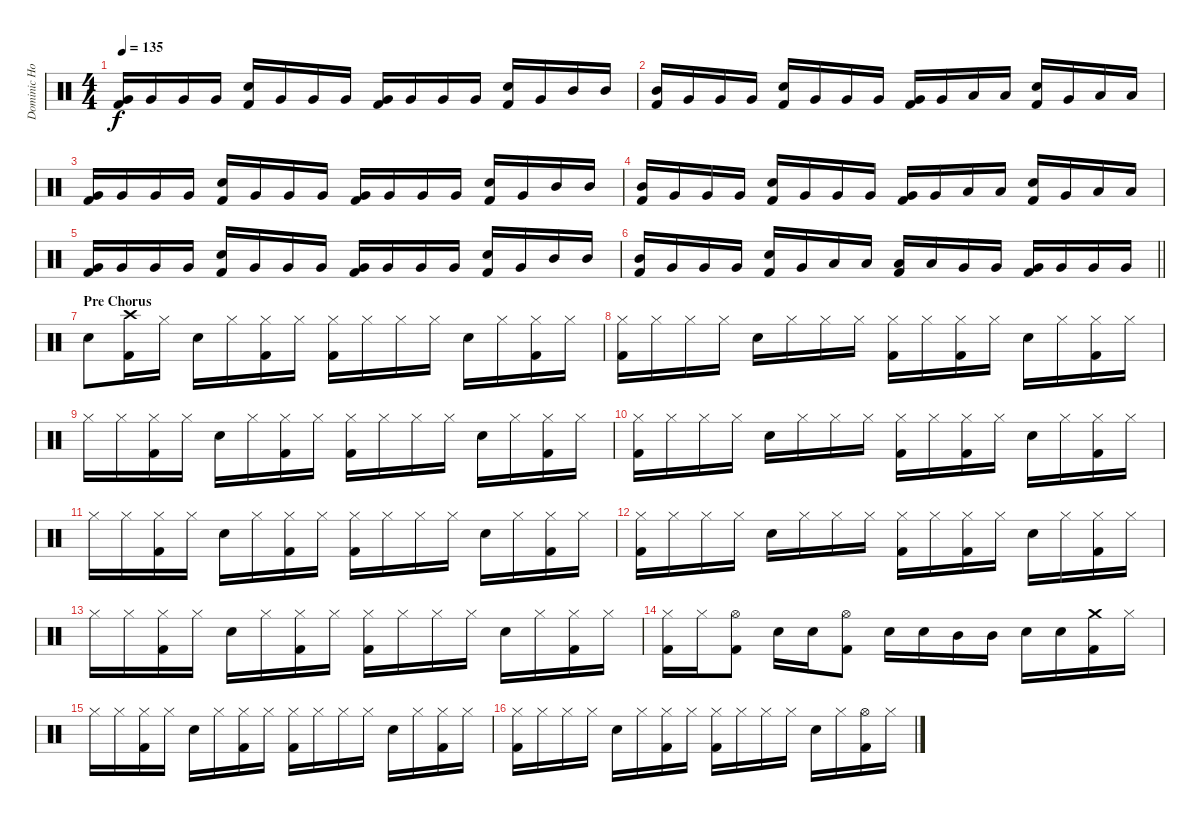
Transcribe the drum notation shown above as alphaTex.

\track ("Dominic Howard (Drums)" "Dominic Ho") {instrument percussion}
\staff {score}
\articulation defaults
\ts (4 4)
\tempo 135
\clef neutral
\ks c
("Kick (hit) 2" "Very Low Tom (hit)").16{dy f} "Very Low Tom (hit)".16 "Very Low Tom (hit)".16 "Very Low Tom (hit)".16 ("Electric Snare (hit)" "Kick (hit) 2").16 "Very Low Tom (hit)".16 "Very Low Tom (hit)".16 "Very Low Tom (hit)".16 ("Kick (hit) 2" "Very Low Tom (hit)").16 "Very Low Tom (hit)".16 "Very Low Tom (hit)".16 "Very Low Tom (hit)".16 ("Electric Snare (hit)" "Kick (hit) 2").16 "Very Low Tom (hit)".16 "Mid Tom (hit)".16 "Mid Tom (hit)".16 |
("Kick (hit) 2" "Mid Tom (hit)").16 "Very Low Tom (hit)".16 "Very Low Tom (hit)".16 "Very Low Tom (hit)".16 ("Electric Snare (hit)" "Kick (hit) 2").16 "Very Low Tom (hit)".16 "Very Low Tom (hit)".16 "Very Low Tom (hit)".16 ("Kick (hit) 2" "Very Low Tom (hit)").16 "Very Low Tom (hit)".16 "Low Tom (hit)".16 "Low Tom (hit)".16 ("Electric Snare (hit)" "Kick (hit) 2").16 "Very Low Tom (hit)".16 "Low Tom (hit)".16 "Low Tom (hit)".16 |
("Kick (hit) 2" "Very Low Tom (hit)").16 "Very Low Tom (hit)".16 "Very Low Tom (hit)".16 "Very Low Tom (hit)".16 ("Electric Snare (hit)" "Kick (hit) 2").16 "Very Low Tom (hit)".16 "Very Low Tom (hit)".16 "Very Low Tom (hit)".16 ("Kick (hit) 2" "Very Low Tom (hit)").16 "Very Low Tom (hit)".16 "Very Low Tom (hit)".16 "Very Low Tom (hit)".16 ("Electric Snare (hit)" "Kick (hit) 2").16 "Very Low Tom (hit)".16 "Mid Tom (hit)".16 "Mid Tom (hit)".16 |
("Kick (hit) 2" "Mid Tom (hit)").16 "Very Low Tom (hit)".16 "Very Low Tom (hit)".16 "Very Low Tom (hit)".16 ("Electric Snare (hit)" "Kick (hit) 2").16 "Very Low Tom (hit)".16 "Very Low Tom (hit)".16 "Very Low Tom (hit)".16 ("Kick (hit) 2" "Very Low Tom (hit)").16 "Very Low Tom (hit)".16 "Low Tom (hit)".16 "Low Tom (hit)".16 ("Electric Snare (hit)" "Kick (hit) 2").16 "Very Low Tom (hit)".16 "Low Tom (hit)".16 "Low Tom (hit)".16 |
("Kick (hit) 2" "Very Low Tom (hit)").16 "Very Low Tom (hit)".16 "Very Low Tom (hit)".16 "Very Low Tom (hit)".16 ("Electric Snare (hit)" "Kick (hit) 2").16 "Very Low Tom (hit)".16 "Very Low Tom (hit)".16 "Very Low Tom (hit)".16 ("Kick (hit) 2" "Very Low Tom (hit)").16 "Very Low Tom (hit)".16 "Very Low Tom (hit)".16 "Very Low Tom (hit)".16 ("Electric Snare (hit)" "Kick (hit) 2").16 "Very Low Tom (hit)".16 "Mid Tom (hit)".16 "Mid Tom (hit)".16 |
\barLineRight lightlight
("Kick (hit) 2" "Mid Tom (hit)").16 "Very Low Tom (hit)".16 "Very Low Tom (hit)".16 "Very Low Tom (hit)".16 ("Electric Snare (hit)" "Kick (hit) 2").16 "Very Low Tom (hit)".16 "Low Tom (hit)".16 "Low Tom (hit)".16 ("Kick (hit) 2" "Low Tom (hit)").16 "Low Tom (hit)".16 "Very Low Tom (hit)".16 "Very Low Tom (hit)".16 ("Kick (hit) 2" "Very Low Tom (hit)").16 "Very Low Tom (hit)".16 "Very Low Tom (hit)".16 "Very Low Tom (hit)".16 |
\section ("" "Pre Chorus")
"Electric Snare (hit)".8 ("Crash high (hit)" "Kick (hit) 2").16 "Hi-Hat (closed)".16 "Electric Snare (hit)".16 "Hi-Hat (closed)".16 ("Hi-Hat (closed)" "Kick (hit) 2").16 "Hi-Hat (closed)".16 ("Hi-Hat (closed)" "Kick (hit) 2").16 "Hi-Hat (closed)".16 "Hi-Hat (closed)".16 "Hi-Hat (closed)".16 "Electric Snare (hit)".16 "Hi-Hat (closed)".16 ("Hi-Hat (closed)" "Kick (hit) 2").16 "Hi-Hat (closed)".16 |
("Hi-Hat (closed)" "Kick (hit) 2").16 "Hi-Hat (closed)".16 "Hi-Hat (closed)".16 "Hi-Hat (closed)".16 "Electric Snare (hit)".16 "Hi-Hat (closed)".16 "Hi-Hat (closed)".16 "Hi-Hat (closed)".16 ("Hi-Hat (closed)" "Kick (hit) 2").16 "Hi-Hat (closed)".16 ("Hi-Hat (closed)" "Kick (hit) 2").16 "Hi-Hat (closed)".16 "Electric Snare (hit)".16 "Hi-Hat (closed)".16 ("Hi-Hat (closed)" "Kick (hit) 2").16 "Hi-Hat (closed)".16 |
"Hi-Hat (closed)".16 "Hi-Hat (closed)".16 ("Hi-Hat (closed)" "Kick (hit) 2").16 "Hi-Hat (closed)".16 "Electric Snare (hit)".16 "Hi-Hat (closed)".16 ("Hi-Hat (closed)" "Kick (hit) 2").16 "Hi-Hat (closed)".16 ("Hi-Hat (closed)" "Kick (hit) 2").16 "Hi-Hat (closed)".16 "Hi-Hat (closed)".16 "Hi-Hat (closed)".16 "Electric Snare (hit)".16 "Hi-Hat (closed)".16 ("Hi-Hat (closed)" "Kick (hit) 2").16 "Hi-Hat (closed)".16 |
("Hi-Hat (closed)" "Kick (hit) 2").16 "Hi-Hat (closed)".16 "Hi-Hat (closed)".16 "Hi-Hat (closed)".16 "Electric Snare (hit)".16 "Hi-Hat (closed)".16 "Hi-Hat (closed)".16 "Hi-Hat (closed)".16 ("Hi-Hat (closed)" "Kick (hit) 2").16 "Hi-Hat (closed)".16 ("Hi-Hat (closed)" "Kick (hit) 2").16 "Hi-Hat (closed)".16 "Electric Snare (hit)".16 "Hi-Hat (closed)".16 ("Hi-Hat (closed)" "Kick (hit) 2").16 "Hi-Hat (closed)".16 |
"Hi-Hat (closed)".16 "Hi-Hat (closed)".16 ("Hi-Hat (closed)" "Kick (hit) 2").16 "Hi-Hat (closed)".16 "Electric Snare (hit)".16 "Hi-Hat (closed)".16 ("Hi-Hat (closed)" "Kick (hit) 2").16 "Hi-Hat (closed)".16 ("Hi-Hat (closed)" "Kick (hit) 2").16 "Hi-Hat (closed)".16 "Hi-Hat (closed)".16 "Hi-Hat (closed)".16 "Electric Snare (hit)".16 "Hi-Hat (closed)".16 ("Hi-Hat (closed)" "Kick (hit) 2").16 "Hi-Hat (closed)".16 |
("Hi-Hat (closed)" "Kick (hit) 2").16 "Hi-Hat (closed)".16 "Hi-Hat (closed)".16 "Hi-Hat (closed)".16 "Electric Snare (hit)".16 "Hi-Hat (closed)".16 "Hi-Hat (closed)".16 "Hi-Hat (closed)".16 ("Hi-Hat (closed)" "Kick (hit) 2").16 "Hi-Hat (closed)".16 ("Hi-Hat (closed)" "Kick (hit) 2").16 "Hi-Hat (closed)".16 "Electric Snare (hit)".16 "Hi-Hat (closed)".16 ("Hi-Hat (closed)" "Kick (hit) 2").16 "Hi-Hat (closed)".16 |
"Hi-Hat (closed)".16 "Hi-Hat (closed)".16 ("Hi-Hat (closed)" "Kick (hit) 2").16 "Hi-Hat (closed)".16 "Electric Snare (hit)".16 "Hi-Hat (closed)".16 ("Hi-Hat (closed)" "Kick (hit) 2").16 "Hi-Hat (closed)".16 ("Hi-Hat (closed)" "Kick (hit) 2").16 "Hi-Hat (closed)".16 "Hi-Hat (closed)".16 "Hi-Hat (closed)".16 "Electric Snare (hit)".16 "Hi-Hat (closed)".16 ("Hi-Hat (closed)" "Kick (hit) 2").16 "Hi-Hat (closed)".16 |
("Hi-Hat (closed)" "Kick (hit) 2").16 "Hi-Hat (closed)".16 ("Hi-Hat (open)" "Kick (hit) 2").8 "Electric Snare (hit)".16 "Electric Snare (hit)".16 ("Hi-Hat (open)" "Kick (hit) 2").8 "Electric Snare (hit)".16 "Electric Snare (hit)".16 "Mid Tom (hit)".16 "Mid Tom (hit)".16 "Electric Snare (hit)".16 "Electric Snare (hit)".16 ("Crash medium (hit)" "Kick (hit) 2").16 "Hi-Hat (closed)".16 |
"Hi-Hat (closed)".16 "Hi-Hat (closed)".16 ("Hi-Hat (closed)" "Kick (hit) 2").16 "Hi-Hat (closed)".16 "Electric Snare (hit)".16 "Hi-Hat (closed)".16 ("Hi-Hat (closed)" "Kick (hit) 2").16 "Hi-Hat (closed)".16 ("Hi-Hat (closed)" "Kick (hit) 2").16 "Hi-Hat (closed)".16 "Hi-Hat (closed)".16 "Hi-Hat (closed)".16 "Electric Snare (hit)".16 "Hi-Hat (closed)".16 ("Hi-Hat (closed)" "Kick (hit) 2").16 "Hi-Hat (closed)".16 |
("Hi-Hat (closed)" "Kick (hit) 2").16 "Hi-Hat (closed)".16 "Hi-Hat (closed)".16 "Hi-Hat (closed)".16 "Electric Snare (hit)".16 "Hi-Hat (closed)".16 ("Hi-Hat (closed)" "Kick (hit) 2").16 "Hi-Hat (closed)".16 ("Hi-Hat (closed)" "Kick (hit) 2").16 "Hi-Hat (closed)".16 "Hi-Hat (closed)".16 "Hi-Hat (closed)".16 "Electric Snare (hit)".16 "Hi-Hat (closed)".16 ("Hi-Hat (open)" "Kick (hit) 2").16 "Hi-Hat (closed)".16
